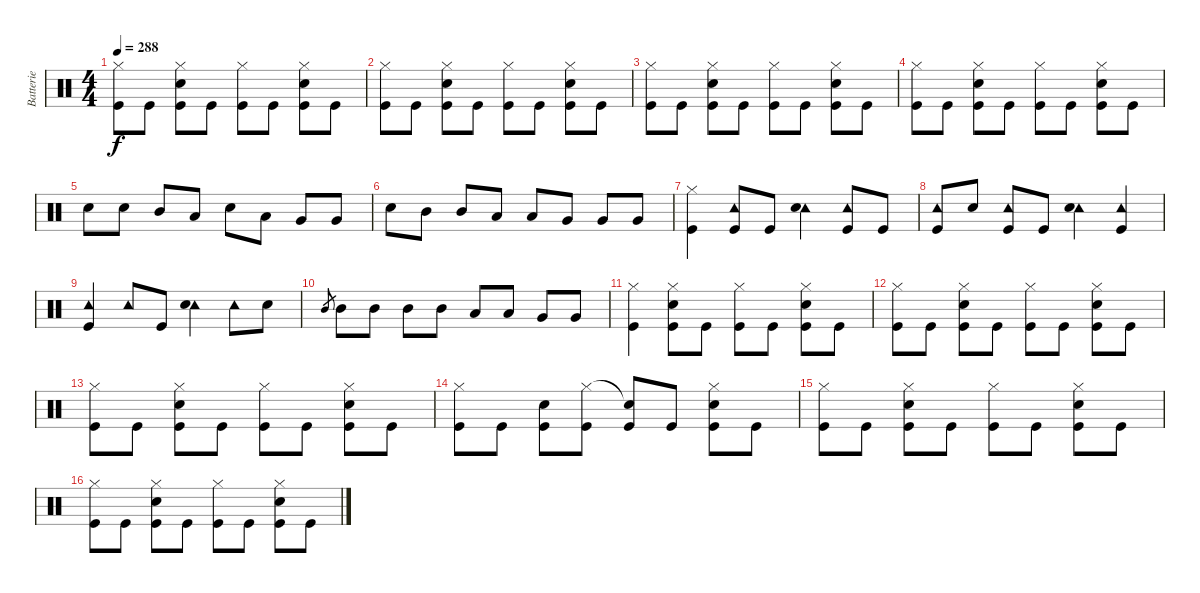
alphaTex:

\track ("Batterie" "Batterie") {instrument percussion}
\staff {score}
\articulation defaults
\ts (4 4)
\tempo 288
\clef neutral
\ks c
("Hi-Hat (closed)" "Kick (hit)").8{dy f} "Kick (hit)".8 ("Hi-Hat (closed)" "Snare (hit) 2" "Kick (hit)").8 "Kick (hit)".8 ("Hi-Hat (closed)" "Kick (hit)").8 "Kick (hit)".8 ("Hi-Hat (closed)" "Snare (hit) 2" "Kick (hit)").8 "Kick (hit)".8 |
("Hi-Hat (closed)" "Kick (hit)").8 "Kick (hit)".8 ("Hi-Hat (closed)" "Snare (hit) 2" "Kick (hit)").8 "Kick (hit)".8 ("Hi-Hat (closed)" "Kick (hit)").8 "Kick (hit)".8 ("Hi-Hat (closed)" "Snare (hit) 2" "Kick (hit)").8 "Kick (hit)".8 |
("Hi-Hat (closed)" "Kick (hit)").8 "Kick (hit)".8 ("Hi-Hat (closed)" "Snare (hit) 2" "Kick (hit)").8 "Kick (hit)".8 ("Hi-Hat (closed)" "Kick (hit)").8 "Kick (hit)".8 ("Hi-Hat (closed)" "Snare (hit) 2" "Kick (hit)").8 "Kick (hit)".8 |
("Hi-Hat (closed)" "Kick (hit)").8 "Kick (hit)".8 ("Hi-Hat (closed)" "Snare (hit) 2" "Kick (hit)").8 "Kick (hit)".8 ("Hi-Hat (closed)" "Kick (hit)").8 "Kick (hit)".8 ("Hi-Hat (closed)" "Snare (hit) 2" "Kick (hit)").8 "Kick (hit)".8 |
"Snare (hit) 2".8 "Snare (hit) 2".8 "Mid Tom (hit)".8 "Low Tom (hit)".8 "Snare (hit) 2".8 "Low Tom (hit)".8 "Very Low Tom (hit)".8 "Very Low Tom (hit)".8 |
"Snare (hit) 2".8 "Mid Tom (hit)".8 "Mid Tom (hit)".8 "Low Tom (hit)".8 "Low Tom (hit)".8 "Very Low Tom (hit)".8 "Very Low Tom (hit)".8 "Very Low Tom (hit)".8 |
("Hi-Hat (closed)" "Kick (hit)").4 ("Tambourine (hit)" "Kick (hit)").8 "Kick (hit)".8 ("Tambourine (hit)" "Snare (hit) 2").4 ("Tambourine (hit)" "Kick (hit)").8 "Kick (hit)".8 |
("Tambourine (hit)" "Kick (hit)").8 "Snare (hit) 2".8 ("Tambourine (hit)" "Kick (hit)").8 "Kick (hit)".8 ("Tambourine (hit)" "Snare (hit) 2").4 ("Tambourine (hit)" "Kick (hit)").4 |
("Tambourine (hit)" "Kick (hit)").4 "Tambourine (hit)".8 "Kick (hit)".8 ("Tambourine (hit)" "Snare (hit) 2").4 "Tambourine (hit)".8 "Snare (hit) 2".8 |
"Mid Tom (hit)".8{gr} "Mid Tom (hit)".8 "Mid Tom (hit)".8 "Mid Tom (hit)".8 "Mid Tom (hit)".8 "Low Tom (hit)".8 "Low Tom (hit)".8 "Very Low Tom (hit)".8 "Very Low Tom (hit)".8 |
("Hi-Hat (closed)" "Kick (hit)").4 ("Hi-Hat (closed)" "Snare (hit) 2" "Kick (hit)").8 "Kick (hit)".8 ("Hi-Hat (closed)" "Kick (hit)").8 "Kick (hit)".8 ("Hi-Hat (closed)" "Snare (hit) 2" "Kick (hit)").8 "Kick (hit)".8 |
("Hi-Hat (closed)" "Kick (hit)").8 "Kick (hit)".8 ("Hi-Hat (closed)" "Snare (hit) 2" "Kick (hit)").8 "Kick (hit)".8 ("Hi-Hat (closed)" "Kick (hit)").8 "Kick (hit)".8 ("Hi-Hat (closed)" "Snare (hit) 2" "Kick (hit)").8 "Kick (hit)".8 |
("Hi-Hat (closed)" "Kick (hit)").8 "Kick (hit)".8 ("Hi-Hat (closed)" "Snare (hit) 2" "Kick (hit)").8 "Kick (hit)".8 ("Hi-Hat (closed)" "Kick (hit)").8 "Kick (hit)".8 ("Hi-Hat (closed)" "Snare (hit) 2" "Kick (hit)").8 "Kick (hit)".8 |
("Hi-Hat (closed)" "Kick (hit)").8 "Kick (hit)".8 ("Snare (hit) 2" "Kick (hit)").8 ("Hi-Hat (closed)" "Kick (hit)").8 ("Snare (hit)"{t} "Kick (hit)").8 "Kick (hit)".8 ("Hi-Hat (closed)" "Snare (hit) 2" "Kick (hit)").8 "Kick (hit)".8 |
("Hi-Hat (closed)" "Kick (hit)").8 "Kick (hit)".8 ("Hi-Hat (closed)" "Snare (hit) 2" "Kick (hit)").8 "Kick (hit)".8 ("Hi-Hat (closed)" "Kick (hit)").8 "Kick (hit)".8 ("Hi-Hat (closed)" "Snare (hit) 2" "Kick (hit)").8 "Kick (hit)".8 |
("Hi-Hat (closed)" "Kick (hit)").8 "Kick (hit)".8 ("Hi-Hat (closed)" "Snare (hit) 2" "Kick (hit)").8 "Kick (hit)".8 ("Hi-Hat (closed)" "Kick (hit)").8 "Kick (hit)".8 ("Hi-Hat (closed)" "Snare (hit) 2" "Kick (hit)").8 "Kick (hit)".8
